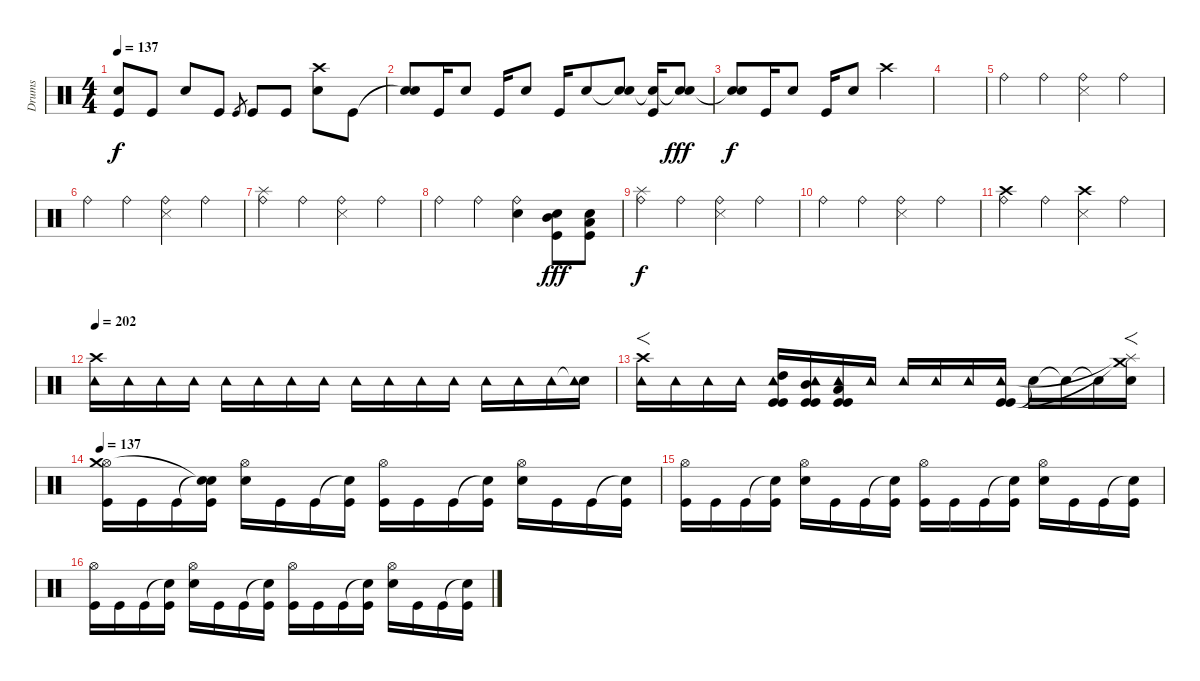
\track ("Drums" "Drums") {instrument percussion}
\staff {score}
\articulation defaults
\ts (4 4)
\tempo 137
\clef neutral
\ks c
("Snare (hit)"{t} "Kick (hit)").8{dy f} "Kick (hit)".8 "Snare (hit) 2".8 "Kick (hit)".8 "Kick (hit)".8{gr} "Kick (hit)".8 "Kick (hit)".8 ("Crash high (hit)" "Snare (hit) 2").8 "Kick (hit)".8 |
("Snare (hit)"{t} "Snare (hit) 2").8 "Kick (hit)".16 "Snare (hit) 2".8 "Kick (hit)".16 "Snare (hit) 2".8 "Kick (hit)".16 "Snare (hit) 2".8 ("Snare (hit)"{t} "Snare (hit) 2").8 ("Snare (hit)"{t} "Kick (hit)").16 ("Snare (hit)"{t} "Snare (hit) 2").8{dy fff} |
("Snare (hit)"{t} "Snare (hit) 2").8{dy f} "Kick (hit)".16 "Snare (hit) 2".8 "Kick (hit)".16 "Snare (hit) 2".8 "Crash high (hit)".2 |
|
"Ride (bell)".4 "Ride (bell)".4 ("Snare (side stick) 3" "Ride (bell)").4 "Ride (bell)".4 |
"Ride (bell)".4 "Ride (bell)".4 ("Snare (side stick) 3" "Ride (bell)").4 "Ride (bell)".4 |
("Ride (bell)" "Splash (hit)").4 "Ride (bell)".4 ("Snare (side stick) 3" "Ride (bell)").4 "Ride (bell)".4 |
"Ride (bell)".4 "Ride (bell)".4 ("Snare (hit) 2" "Ride (bell)").4 ("Snare (hit) 2" "Mid Tom (hit)" "Kick (hit)").8{dy fff} ("Snare (hit) 2" "Low Tom (hit)" "Kick (hit)").8 |
("Ride (bell)" "Splash (hit)").4{dy f} "Ride (bell)".4 ("Snare (side stick) 3" "Ride (bell)").4 "Ride (bell)".4 |
"Ride (bell)".4 "Ride (bell)".4 ("Ride (bell)" "Snare (side stick) 3").4 "Ride (bell)".4 |
("Ride (bell)" "Crash high (hit)").4 "Ride (bell)".4 ("Snare (side stick) 3" "Crash high (hit)").4 "Ride (bell)".4 |
\tempo 202
("Crash high (hit)" "Tambourine (hit)").16 "Tambourine (hit)".16 "Tambourine (hit)".16 "Tambourine (hit)".16 "Tambourine (hit)".16 "Tambourine (hit)".16 "Tambourine (hit)".16 "Tambourine (hit)".16 "Tambourine (hit)".16 "Tambourine (hit)".16 "Tambourine (hit)".16 "Tambourine (hit)".16 "Tambourine (hit)".16 "Tambourine (hit)".16 "Tambourine (hit)".16 ("Snare (hit)"{t} "Tambourine (hit)").16 |
("Tambourine (hit)" "Crash high (hit)").16{f} "Tambourine (hit)".16 "Tambourine (hit)".16 "Tambourine (hit)".16 ("Kick (hit)" "Kick (hit)" "Tambourine (hit)" "High Tom (hit)").16 ("Kick (hit)" "Kick (hit)" "Tambourine (hit)" "Mid Tom (hit)").16 ("Kick (hit)" "Kick (hit)" "Tambourine (hit)" "Low Tom (hit)").16 "Tambourine (hit)".16 "Tambourine (hit)".16 "Tambourine (hit)".16 "Tambourine (hit)".16 ("Kick (hit)" "Kick (hit)" "Tambourine (hit)").16 "Snare (hit)"{t}.16 "Snare (hit)"{t}.16 "Snare (hit)"{t}.16 ("Snare (hit)" "Crash medium (hit)"{t} "Splash (hit)"{t}).16{f} |
\tempo 137
("Hi-Hat (open)" "Kick (hit)" "Crash medium (hit)").16{volume 12} "Kick (hit)".16 "Kick (hit)".16 ("Snare (hit)"{t} "Kick (hit)" "Snare (hit)"{t}).16 ("Hi-Hat (open)" "Electric Snare (hit)").16 "Kick (hit)".16 "Kick (hit)".16 ("Snare (hit)"{t} "Kick (hit)").16 ("Hi-Hat (open)" "Kick (hit)").16 "Kick (hit)".16 "Kick (hit)".16 ("Snare (hit)"{t} "Kick (hit)").16 ("Hi-Hat (open)" "Electric Snare (hit)").16 "Kick (hit)".16 "Kick (hit)".16 ("Snare (hit)"{t} "Kick (hit)").16 |
("Hi-Hat (open)" "Kick (hit)").16 "Kick (hit)".16 "Kick (hit)".16 ("Snare (hit)"{t} "Kick (hit)").16 ("Hi-Hat (open)" "Electric Snare (hit)").16 "Kick (hit)".16 "Kick (hit)".16 ("Snare (hit)"{t} "Kick (hit)").16 ("Hi-Hat (open)" "Kick (hit)").16 "Kick (hit)".16 "Kick (hit)".16 ("Snare (hit)"{t} "Kick (hit)").16 ("Hi-Hat (open)" "Electric Snare (hit)").16 "Kick (hit)".16 "Kick (hit)".16 ("Snare (hit)"{t} "Kick (hit)").16 |
("Hi-Hat (open)" "Kick (hit)").16 "Kick (hit)".16 "Kick (hit)".16 ("Snare (hit)"{t} "Kick (hit)").16 ("Hi-Hat (open)" "Electric Snare (hit)").16 "Kick (hit)".16 "Kick (hit)".16 ("Snare (hit)"{t} "Kick (hit)").16 ("Hi-Hat (open)" "Kick (hit)").16 "Kick (hit)".16 "Kick (hit)".16 ("Snare (hit)"{t} "Kick (hit)").16 ("Hi-Hat (open)" "Electric Snare (hit)").16 "Kick (hit)".16 "Kick (hit)".16 ("Snare (hit)"{t} "Kick (hit)").16
